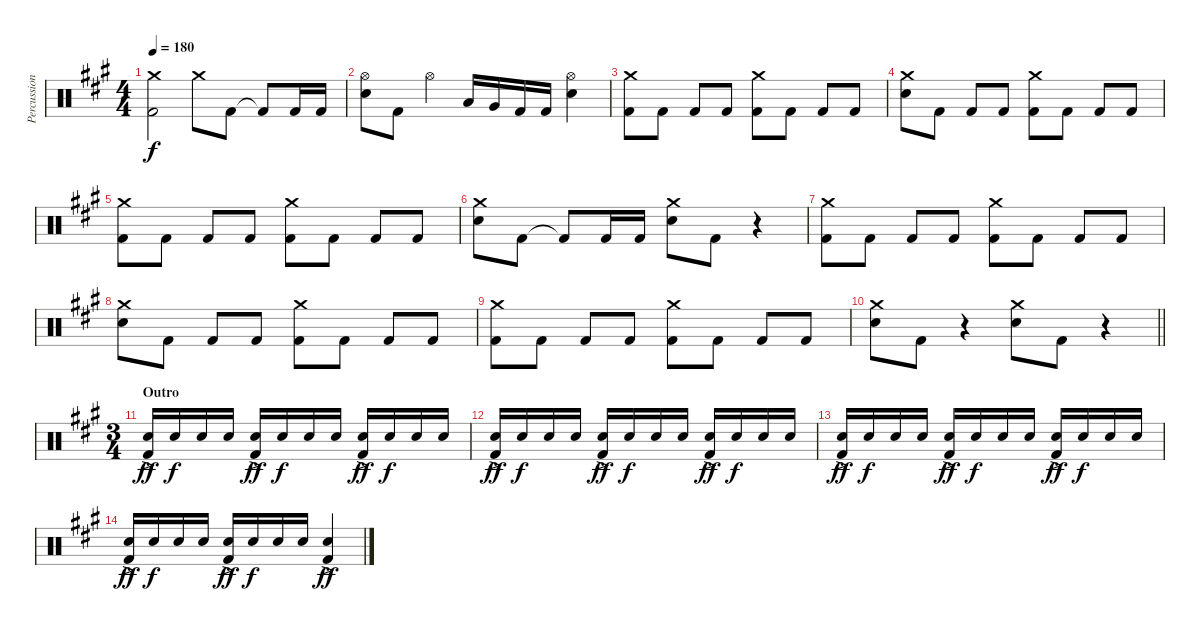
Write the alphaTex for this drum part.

\track ("Percussion" "Percussion") {instrument percussion}
\staff {score}
\articulation defaults
\ts (4 4)
\tempo 180
\clef neutral
\ks f#minor
("Crash medium (hit)" "Kick (hit) 2").2{dy f} "Crash medium (hit)".8 "Kick (hit) 2".8 "Kick (hit) 2"{t}.8 "Kick (hit) 2".16 "Kick (hit) 2".16 |
("Hi-Hat (open)" "Electric Snare (hit)").8 "Kick (hit) 2".8 "Hi-Hat (open)".4 "Low Tom (hit)".16 "Very Low Tom (hit)".16 "Kick (hit) 2".16 "Kick (hit) 2".16 ("Hi-Hat (open)" "Electric Snare (hit)").4 |
("Crash medium (hit)" "Kick (hit) 2").8 "Kick (hit) 2".8 "Kick (hit) 2".8 "Kick (hit) 2".8 ("Crash medium (hit)" "Kick (hit) 2").8 "Kick (hit) 2".8 "Kick (hit) 2".8 "Kick (hit) 2".8 |
("Crash medium (hit)" "Electric Snare (hit)").8 "Kick (hit) 2".8 "Kick (hit) 2".8 "Kick (hit) 2".8 ("Crash medium (hit)" "Kick (hit) 2").8 "Kick (hit) 2".8 "Kick (hit) 2".8 "Kick (hit) 2".8 |
("Crash medium (hit)" "Kick (hit) 2").8 "Kick (hit) 2".8 "Kick (hit) 2".8 "Kick (hit) 2".8 ("Crash medium (hit)" "Kick (hit) 2").8 "Kick (hit) 2".8 "Kick (hit) 2".8 "Kick (hit) 2".8 |
("Crash medium (hit)" "Electric Snare (hit)").8 "Kick (hit) 2".8 "Kick (hit) 2"{t}.8 "Kick (hit) 2".16 "Kick (hit) 2".16 ("Crash medium (hit)" "Electric Snare (hit)").8 "Kick (hit) 2".8 r.4 |
("Crash medium (hit)" "Kick (hit) 2").8 "Kick (hit) 2".8 "Kick (hit) 2".8 "Kick (hit) 2".8 ("Crash medium (hit)" "Kick (hit) 2").8 "Kick (hit) 2".8 "Kick (hit) 2".8 "Kick (hit) 2".8 |
("Crash medium (hit)" "Electric Snare (hit)").8 "Kick (hit) 2".8 "Kick (hit) 2".8 "Kick (hit) 2".8 ("Crash medium (hit)" "Kick (hit) 2").8 "Kick (hit) 2".8 "Kick (hit) 2".8 "Kick (hit) 2".8 |
("Crash medium (hit)" "Kick (hit) 2").8 "Kick (hit) 2".8 "Kick (hit) 2".8 "Kick (hit) 2".8 ("Crash medium (hit)" "Kick (hit) 2").8 "Kick (hit) 2".8 "Kick (hit) 2".8 "Kick (hit) 2".8 |
\barLineRight lightlight
("Crash medium (hit)" "Electric Snare (hit)").8 "Kick (hit) 2".8 r.4 ("Crash medium (hit)" "Electric Snare (hit)").8 "Kick (hit) 2".8 r.4 |
\ts (3 4)
\section ("" "Outro")
("Electric Snare (hit)"{ac} "Kick (hit) 2").16{dy ff} "Electric Snare (hit)".16{dy f} "Electric Snare (hit)".16 "Electric Snare (hit)".16 ("Electric Snare (hit)"{ac} "Kick (hit) 2").16{dy ff} "Electric Snare (hit)".16{dy f} "Electric Snare (hit)".16 "Electric Snare (hit)".16 ("Electric Snare (hit)"{ac} "Kick (hit) 2").16{dy ff} "Electric Snare (hit)".16{dy f} "Electric Snare (hit)".16 "Electric Snare (hit)".16 |
("Electric Snare (hit)"{ac} "Kick (hit) 2").16{dy ff} "Electric Snare (hit)".16{dy f} "Electric Snare (hit)".16 "Electric Snare (hit)".16 ("Electric Snare (hit)"{ac} "Kick (hit) 2").16{dy ff} "Electric Snare (hit)".16{dy f} "Electric Snare (hit)".16 "Electric Snare (hit)".16 ("Electric Snare (hit)"{ac} "Kick (hit) 2").16{dy ff} "Electric Snare (hit)".16{dy f} "Electric Snare (hit)".16 "Electric Snare (hit)".16 |
("Electric Snare (hit)"{ac} "Kick (hit) 2").16{dy ff} "Electric Snare (hit)".16{dy f} "Electric Snare (hit)".16 "Electric Snare (hit)".16 ("Electric Snare (hit)"{ac} "Kick (hit) 2").16{dy ff} "Electric Snare (hit)".16{dy f} "Electric Snare (hit)".16 "Electric Snare (hit)".16 ("Electric Snare (hit)"{ac} "Kick (hit) 2").16{dy ff} "Electric Snare (hit)".16{dy f} "Electric Snare (hit)".16 "Electric Snare (hit)".16 |
("Electric Snare (hit)"{ac} "Kick (hit) 2").16{dy ff} "Electric Snare (hit)".16{dy f} "Electric Snare (hit)".16 "Electric Snare (hit)".16 ("Electric Snare (hit)"{ac} "Kick (hit) 2").16{dy ff} "Electric Snare (hit)".16{dy f} "Electric Snare (hit)".16 "Electric Snare (hit)".16 ("Electric Snare (hit)"{ac} "Kick (hit) 2").4{dy ff}
